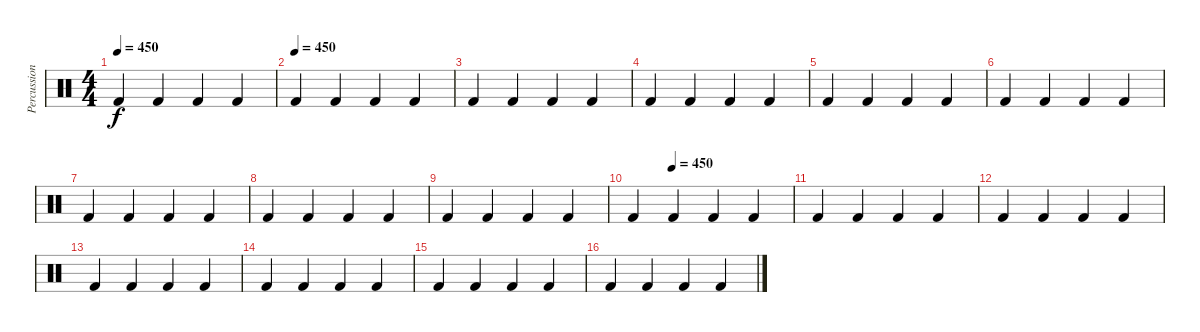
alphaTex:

\track ("Percussions2" "Percussion") {instrument percussion}
\staff {score}
\articulation defaults
\ts (4 4)
\tempo 450
\clef neutral
\ks c "Kick (hit) 2".4{dy f} "Kick (hit) 2".4 "Kick (hit) 2".4 "Kick (hit) 2".4
|
\tempo (450)
"Kick (hit) 2".4 "Kick (hit) 2".4 "Kick (hit) 2".4 "Kick (hit) 2".4 |
"Kick (hit) 2".4 "Kick (hit) 2".4 "Kick (hit) 2".4 "Kick (hit) 2".4 |
"Kick (hit) 2".4 "Kick (hit) 2".4 "Kick (hit) 2".4 "Kick (hit) 2".4 |
"Kick (hit) 2".4 "Kick (hit) 2".4 "Kick (hit) 2".4 "Kick (hit) 2".4 |
"Kick (hit) 2".4 "Kick (hit) 2".4 "Kick (hit) 2".4 "Kick (hit) 2".4 |
"Kick (hit) 2".4 "Kick (hit) 2".4 "Kick (hit) 2".4 "Kick (hit) 2".4 |
"Kick (hit) 2".4 "Kick (hit) 2".4 "Kick (hit) 2".4 "Kick (hit) 2".4 |
"Kick (hit) 2".4 "Kick (hit) 2".4 "Kick (hit) 2".4 "Kick (hit) 2".4 |
\tempo (450 0.25)
"Kick (hit) 2".4 "Kick (hit) 2".4 "Kick (hit) 2".4 "Kick (hit) 2".4 |
"Kick (hit) 2".4 "Kick (hit) 2".4 "Kick (hit) 2".4 "Kick (hit) 2".4 |
"Kick (hit) 2".4 "Kick (hit) 2".4 "Kick (hit) 2".4 "Kick (hit) 2".4 |
"Kick (hit) 2".4 "Kick (hit) 2".4 "Kick (hit) 2".4 "Kick (hit) 2".4 |
"Kick (hit) 2".4 "Kick (hit) 2".4 "Kick (hit) 2".4 "Kick (hit) 2".4 |
"Kick (hit) 2".4 "Kick (hit) 2".4 "Kick (hit) 2".4 "Kick (hit) 2".4 |
"Kick (hit) 2".4 "Kick (hit) 2".4 "Kick (hit) 2".4 "Kick (hit) 2".4
